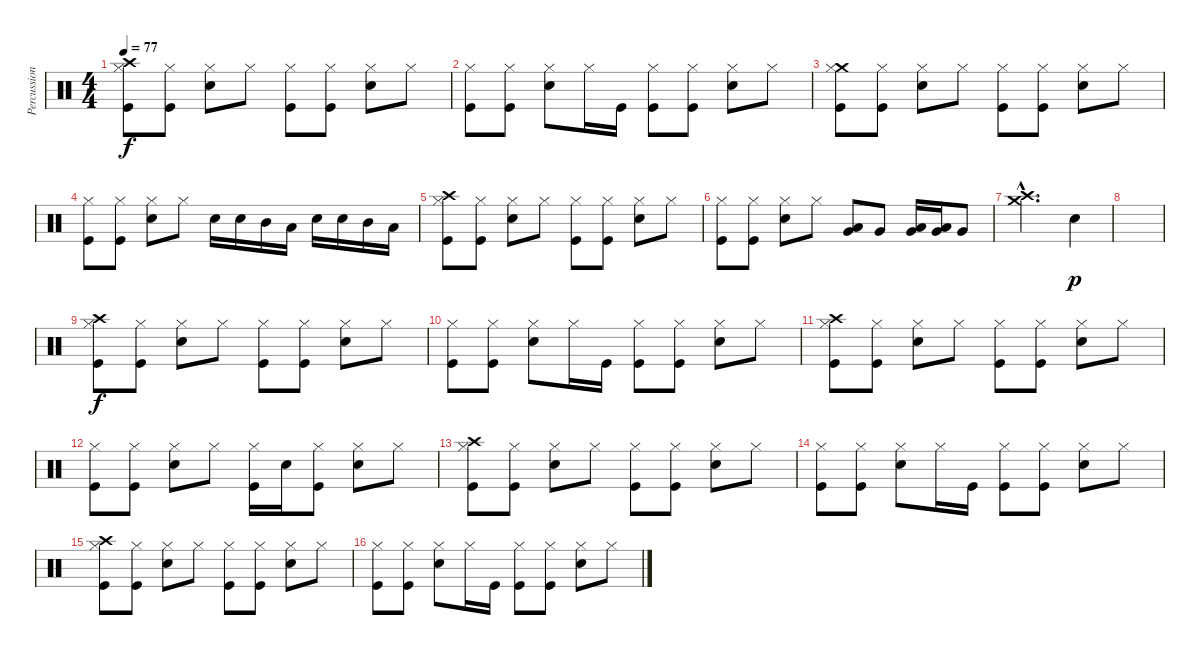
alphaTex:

\track ("Percussion" "Percussion") {instrument percussion}
\staff {score}
\articulation defaults
\ts (4 4)
\tempo 77
\clef neutral
\ks c
("Crash high (hit)" "Hi-Hat (closed)" "Kick (hit)").8{dy f} ("Hi-Hat (closed)" "Kick (hit)").8 ("Hi-Hat (closed)" "Electric Snare (hit)").8 "Hi-Hat (closed)".8 ("Hi-Hat (closed)" "Kick (hit)").8 ("Hi-Hat (closed)" "Kick (hit)").8 ("Hi-Hat (closed)" "Electric Snare (hit)").8 "Hi-Hat (closed)".8 |
("Hi-Hat (closed)" "Kick (hit)").8 ("Hi-Hat (closed)" "Kick (hit)").8 ("Hi-Hat (closed)" "Electric Snare (hit)").8 "Hi-Hat (closed)".16 "Kick (hit)".16 ("Hi-Hat (closed)" "Kick (hit)").8 ("Hi-Hat (closed)" "Kick (hit)").8 ("Hi-Hat (closed)" "Electric Snare (hit)").8 "Hi-Hat (closed)".8 |
("Crash medium (hit)" "Hi-Hat (closed)" "Kick (hit)").8 ("Hi-Hat (closed)" "Kick (hit)").8 ("Hi-Hat (closed)" "Electric Snare (hit)").8 "Hi-Hat (closed)".8 ("Hi-Hat (closed)" "Kick (hit)").8 ("Hi-Hat (closed)" "Kick (hit)").8 ("Hi-Hat (closed)" "Electric Snare (hit)").8 "Hi-Hat (closed)".8 |
("Hi-Hat (closed)" "Kick (hit)").8 ("Hi-Hat (closed)" "Kick (hit)").8 ("Hi-Hat (closed)" "Electric Snare (hit)").8 "Hi-Hat (closed)".8 "Electric Snare (hit)".16 "Electric Snare (hit)".16 "Mid Tom (hit)".16 "Low Tom (hit)".16 "Electric Snare (hit)".16 "Electric Snare (hit)".16 "Mid Tom (hit)".16 "Low Tom (hit)".16 |
("Crash high (hit)" "Hi-Hat (closed)" "Kick (hit)").8 ("Hi-Hat (closed)" "Kick (hit)").8 ("Hi-Hat (closed)" "Electric Snare (hit)").8 "Hi-Hat (closed)".8 ("Hi-Hat (closed)" "Kick (hit)").8 ("Hi-Hat (closed)" "Kick (hit)").8 ("Hi-Hat (closed)" "Electric Snare (hit)").8 "Hi-Hat (closed)".8 |
("Hi-Hat (closed)" "Kick (hit)").8 ("Hi-Hat (closed)" "Kick (hit)").8 ("Hi-Hat (closed)" "Electric Snare (hit)").8 "Hi-Hat (closed)".8 ("Low Tom (hit)" "Very Low Tom (hit)").8 "Very Low Tom (hit)".8 ("Low Tom (hit)" "Very Low Tom (hit)").16 ("Low Tom (hit)" "Very Low Tom (hit)").16 "Very Low Tom (hit)".8 |
("Crash high (hit)"{hac} "Crash medium (hit)"{hac}).2{d} "Electric Snare (hit)".4{dy p} |
|
("Crash high (hit)" "Hi-Hat (closed)" "Kick (hit)").8{dy f} ("Hi-Hat (closed)" "Kick (hit)").8 ("Hi-Hat (closed)" "Electric Snare (hit)").8 "Hi-Hat (closed)".8 ("Hi-Hat (closed)" "Kick (hit)").8 ("Hi-Hat (closed)" "Kick (hit)").8 ("Hi-Hat (closed)" "Electric Snare (hit)").8 "Hi-Hat (closed)".8 |
("Hi-Hat (closed)" "Kick (hit)").8 ("Hi-Hat (closed)" "Kick (hit)").8 ("Hi-Hat (closed)" "Electric Snare (hit)").8 "Hi-Hat (closed)".16 "Kick (hit)".16 ("Hi-Hat (closed)" "Kick (hit)").8 ("Hi-Hat (closed)" "Kick (hit)").8 ("Hi-Hat (closed)" "Electric Snare (hit)").8 "Hi-Hat (closed)".8 |
("Crash high (hit)" "Hi-Hat (closed)" "Kick (hit)").8 ("Hi-Hat (closed)" "Kick (hit)").8 ("Hi-Hat (closed)" "Electric Snare (hit)").8 "Hi-Hat (closed)".8 ("Hi-Hat (closed)" "Kick (hit)").8 ("Hi-Hat (closed)" "Kick (hit)").8 ("Hi-Hat (closed)" "Electric Snare (hit)").8 "Hi-Hat (closed)".8 |
("Hi-Hat (closed)" "Kick (hit)").8 ("Hi-Hat (closed)" "Kick (hit)").8 ("Hi-Hat (closed)" "Electric Snare (hit)").8 "Hi-Hat (closed)".8 ("Hi-Hat (closed)" "Kick (hit)").16 "Electric Snare (hit)".16 ("Hi-Hat (closed)" "Kick (hit)").8 ("Hi-Hat (closed)" "Electric Snare (hit)").8 "Hi-Hat (closed)".8 |
("Crash high (hit)" "Hi-Hat (closed)" "Kick (hit)").8 ("Hi-Hat (closed)" "Kick (hit)").8 ("Hi-Hat (closed)" "Electric Snare (hit)").8 "Hi-Hat (closed)".8 ("Hi-Hat (closed)" "Kick (hit)").8 ("Hi-Hat (closed)" "Kick (hit)").8 ("Hi-Hat (closed)" "Electric Snare (hit)").8 "Hi-Hat (closed)".8 |
("Hi-Hat (closed)" "Kick (hit)").8 ("Hi-Hat (closed)" "Kick (hit)").8 ("Hi-Hat (closed)" "Electric Snare (hit)").8 "Hi-Hat (closed)".16 "Kick (hit)".16 ("Hi-Hat (closed)" "Kick (hit)").8 ("Hi-Hat (closed)" "Kick (hit)").8 ("Hi-Hat (closed)" "Electric Snare (hit)").8 "Hi-Hat (closed)".8 |
("Crash high (hit)" "Hi-Hat (closed)" "Kick (hit)").8 ("Hi-Hat (closed)" "Kick (hit)").8 ("Hi-Hat (closed)" "Electric Snare (hit)").8 "Hi-Hat (closed)".8 ("Hi-Hat (closed)" "Kick (hit)").8 ("Hi-Hat (closed)" "Kick (hit)").8 ("Hi-Hat (closed)" "Electric Snare (hit)").8 "Hi-Hat (closed)".8 |
("Hi-Hat (closed)" "Kick (hit)").8 ("Hi-Hat (closed)" "Kick (hit)").8 ("Hi-Hat (closed)" "Electric Snare (hit)").8 "Hi-Hat (closed)".16 "Kick (hit)".16 ("Hi-Hat (closed)" "Kick (hit)").8 ("Hi-Hat (closed)" "Kick (hit)").8 ("Hi-Hat (closed)" "Electric Snare (hit)").8 "Hi-Hat (closed)".8
